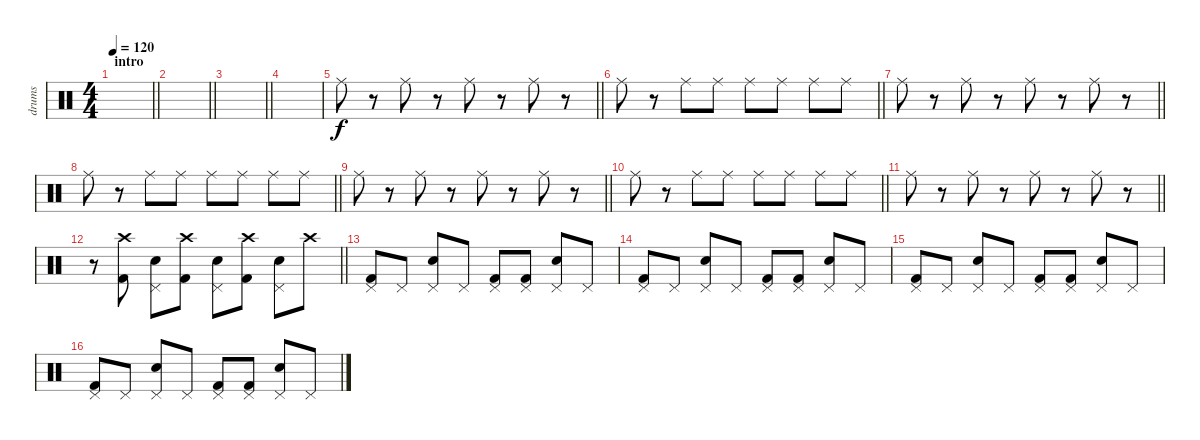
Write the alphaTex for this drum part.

\track ("drums" "drums") {instrument percussion}
\staff {score}
\articulation defaults
\ts (4 4)
\section ("" "intro")
\tempo 120
\clef neutral
\barLineRight lightlight
\ks c
|
\barLineRight lightlight
|
\barLineRight lightlight
|
|
\barLineRight lightlight "Ride (middle)".8
r.8 "Ride (middle)".8 r.8 "Ride (middle)".8 r.8 "Ride (middle)".8 r.8 |
\barLineRight lightlight "Ride (middle)".8
r.8 "Ride (middle)".8 "Ride (middle)".8 "Ride (middle)".8 "Ride (middle)".8 "Ride (middle)".8 "Ride (middle)".8 |
\barLineRight lightlight "Ride (middle)".8
r.8 "Ride (middle)".8 r.8 "Ride (middle)".8 r.8 "Ride (middle)".8 r.8 |
\barLineRight lightlight "Ride (middle)".8
r.8 "Ride (middle)".8 "Ride (middle)".8 "Ride (middle)".8 "Ride (middle)".8 "Ride (middle)".8 "Ride (middle)".8 |
\barLineRight lightlight "Ride (middle)".8
r.8 "Ride (middle)".8 r.8 "Ride (middle)".8 r.8 "Ride (middle)".8 r.8 |
\barLineRight lightlight "Ride (middle)".8
r.8 "Ride (middle)".8 "Ride (middle)".8 "Ride (middle)".8 "Ride (middle)".8 "Ride (middle)".8 "Ride (middle)".8 |
\barLineRight lightlight "Ride (middle)".8
r.8 "Ride (middle)".8 r.8 "Ride (middle)".8 r.8 "Ride (middle)".8 r.8 |
\barLineRight lightlight
r.8 ("Kick (hit) 2" "Crash high (hit)").8{volume 16} ("Electric Snare (hit)" "Pedal Hi-Hat (hit)").8 ("Kick (hit) 2" "Crash high (hit)").8 ("Electric Snare (hit)" "Pedal Hi-Hat (hit)").8 ("Kick (hit) 2" "Crash high (hit)").8 ("Electric Snare (hit)" "Pedal Hi-Hat (hit)").8 "Crash high (hit)".8 |
("Kick (hit) 2" "Pedal Hi-Hat (hit)").8 "Pedal Hi-Hat (hit)".8 ("Electric Snare (hit)" "Pedal Hi-Hat (hit)").8 "Pedal Hi-Hat (hit)".8 ("Kick (hit) 2" "Pedal Hi-Hat (hit)").8 ("Kick (hit) 2" "Pedal Hi-Hat (hit)").8 ("Electric Snare (hit)" "Pedal Hi-Hat (hit)").8 "Pedal Hi-Hat (hit)".8 |
("Kick (hit) 2" "Pedal Hi-Hat (hit)").8 "Pedal Hi-Hat (hit)".8 ("Electric Snare (hit)" "Pedal Hi-Hat (hit)").8 "Pedal Hi-Hat (hit)".8 ("Kick (hit) 2" "Pedal Hi-Hat (hit)").8 ("Kick (hit) 2" "Pedal Hi-Hat (hit)").8 ("Electric Snare (hit)" "Pedal Hi-Hat (hit)").8 "Pedal Hi-Hat (hit)".8 |
("Kick (hit) 2" "Pedal Hi-Hat (hit)").8 "Pedal Hi-Hat (hit)".8 ("Electric Snare (hit)" "Pedal Hi-Hat (hit)").8 "Pedal Hi-Hat (hit)".8 ("Kick (hit) 2" "Pedal Hi-Hat (hit)").8 ("Kick (hit) 2" "Pedal Hi-Hat (hit)").8 ("Electric Snare (hit)" "Pedal Hi-Hat (hit)").8 "Pedal Hi-Hat (hit)".8 |
("Kick (hit) 2" "Pedal Hi-Hat (hit)").8 "Pedal Hi-Hat (hit)".8 ("Electric Snare (hit)" "Pedal Hi-Hat (hit)").8 "Pedal Hi-Hat (hit)".8 ("Kick (hit) 2" "Pedal Hi-Hat (hit)").8 ("Kick (hit) 2" "Pedal Hi-Hat (hit)").8 ("Electric Snare (hit)" "Pedal Hi-Hat (hit)").8 "Pedal Hi-Hat (hit)".8
